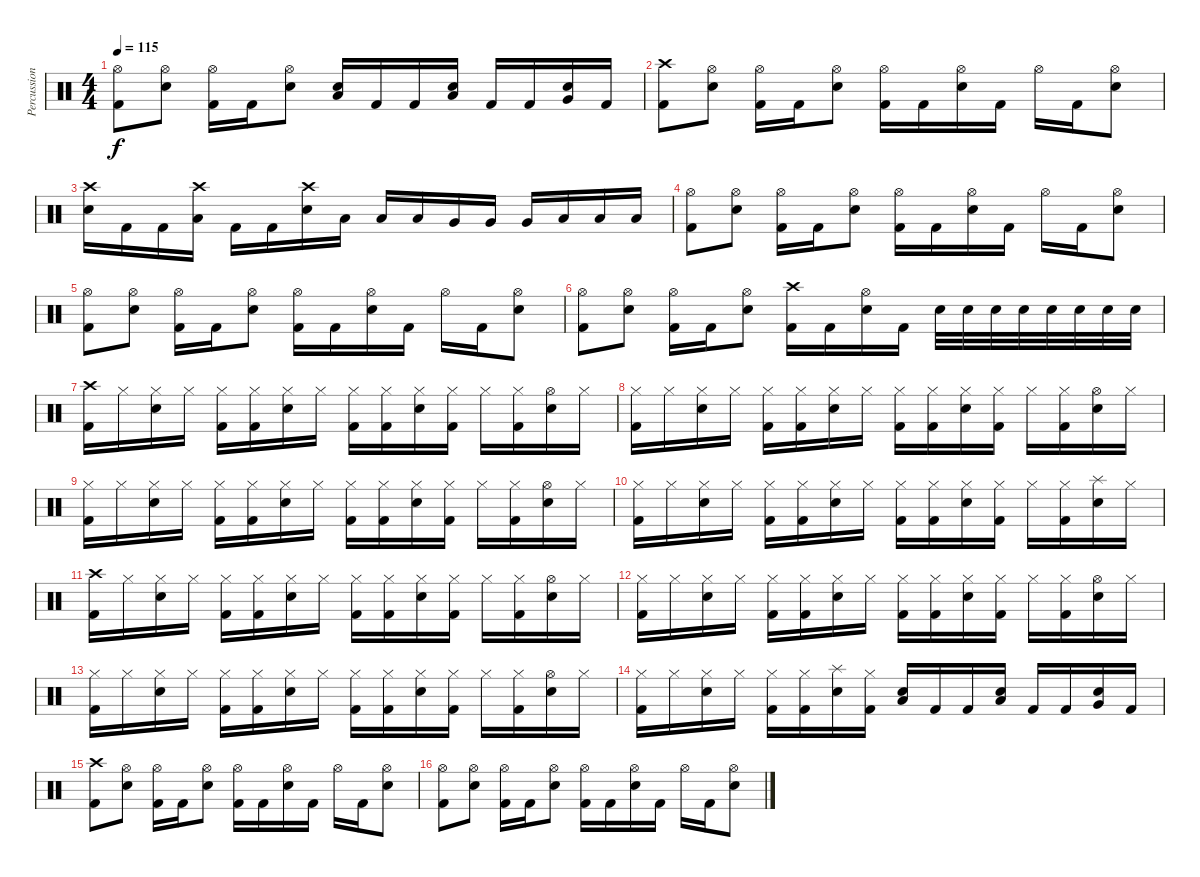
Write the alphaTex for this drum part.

\track ("Percussion" "Percussion") {instrument percussion}
\staff {score}
\articulation defaults
\ts (4 4)
\tempo 115
\clef neutral
\ks c
("Hi-Hat (open)" "Kick (hit) 2").8{dy f} ("Hi-Hat (open)" "Electric Snare (hit)").8 ("Hi-Hat (open)" "Kick (hit) 2").16 "Kick (hit) 2".16 ("Hi-Hat (open)" "Electric Snare (hit)").8 ("Low Tom (hit)" "Electric Snare (hit)").16 "Kick (hit) 2".16 "Kick (hit) 2".16 ("Low Tom (hit)" "Electric Snare (hit)").16 "Kick (hit) 2".16 "Kick (hit) 2".16 ("Very Low Tom (hit)" "Electric Snare (hit)").16 "Kick (hit) 2".16 |
("Crash high (hit)" "Kick (hit) 2").8 ("Hi-Hat (open)" "Electric Snare (hit)").8 ("Hi-Hat (open)" "Kick (hit) 2").16 "Kick (hit) 2".16 ("Hi-Hat (open)" "Electric Snare (hit)").8 ("Hi-Hat (open)" "Kick (hit) 2").16 "Kick (hit) 2".16 ("Hi-Hat (open)" "Electric Snare (hit)").16 "Kick (hit) 2".16 "Hi-Hat (open)".16 "Kick (hit) 2".16 ("Hi-Hat (open)" "Electric Snare (hit)").8 |
("Crash high (hit)" "Electric Snare (hit)").16 "Kick (hit) 2".16 "Kick (hit) 2".16 ("Crash high (hit)" "Low Tom (hit)").16 "Kick (hit) 2".16 "Kick (hit) 2".16 ("Crash high (hit)" "Electric Snare (hit)").16 "Low Tom (hit)".16 "Low Tom (hit)".16 "Low Tom (hit)".16 "Very Low Tom (hit)".16 "Very Low Tom (hit)".16 "Very Low Tom (hit)".16 "Low Floor Tom (hit)".16 "Low Floor Tom (hit)".16 "Low Floor Tom (hit)".16 |
("Hi-Hat (open)" "Kick (hit) 2").8 ("Hi-Hat (open)" "Electric Snare (hit)").8 ("Hi-Hat (open)" "Kick (hit) 2").16 "Kick (hit) 2".16 ("Hi-Hat (open)" "Electric Snare (hit)").8 ("Hi-Hat (open)" "Kick (hit) 2").16 "Kick (hit) 2".16 ("Hi-Hat (open)" "Electric Snare (hit)").16 "Kick (hit) 2".16 "Hi-Hat (open)".16 "Kick (hit) 2".16 ("Hi-Hat (open)" "Electric Snare (hit)").8 |
("Hi-Hat (open)" "Kick (hit) 2").8 ("Hi-Hat (open)" "Electric Snare (hit)").8 ("Hi-Hat (open)" "Kick (hit) 2").16 "Kick (hit) 2".16 ("Hi-Hat (open)" "Electric Snare (hit)").8 ("Hi-Hat (open)" "Kick (hit) 2").16 "Kick (hit) 2".16 ("Hi-Hat (open)" "Electric Snare (hit)").16 "Kick (hit) 2".16 "Hi-Hat (open)".16 "Kick (hit) 2".16 ("Hi-Hat (open)" "Electric Snare (hit)").8 |
("Hi-Hat (open)" "Kick (hit) 2").8 ("Hi-Hat (open)" "Electric Snare (hit)").8 ("Hi-Hat (open)" "Kick (hit) 2").16 "Kick (hit) 2".16 ("Hi-Hat (open)" "Electric Snare (hit)").8 ("Crash high (hit)" "Kick (hit) 2").16 "Kick (hit) 2".16 ("Hi-Hat (open)" "Electric Snare (hit)").16 "Kick (hit) 2".16 "Electric Snare (hit)".32 "Electric Snare (hit)".32 "Electric Snare (hit)".32 "Electric Snare (hit)".32 "Electric Snare (hit)".32 "Electric Snare (hit)".32 "Electric Snare (hit)".32 "Electric Snare (hit)".32 |
("Crash high (hit)" "Kick (hit) 2").16 "Hi-Hat (closed)".16 ("Hi-Hat (closed)" "Electric Snare (hit)").16 "Hi-Hat (closed)".16 ("Hi-Hat (closed)" "Kick (hit) 2").16 ("Hi-Hat (closed)" "Kick (hit) 2").16 ("Hi-Hat (closed)" "Electric Snare (hit)").16 "Hi-Hat (closed)".16 ("Hi-Hat (closed)" "Kick (hit) 2").16 ("Hi-Hat (closed)" "Kick (hit) 2").16 ("Hi-Hat (closed)" "Electric Snare (hit)").16 ("Hi-Hat (closed)" "Kick (hit) 2").16 "Hi-Hat (closed)".16 ("Hi-Hat (closed)" "Kick (hit) 2").16 ("Hi-Hat (open)" "Electric Snare (hit)").16 "Hi-Hat (closed)".16 |
("Hi-Hat (closed)" "Kick (hit) 2").16 "Hi-Hat (closed)".16 ("Hi-Hat (closed)" "Electric Snare (hit)").16 "Hi-Hat (closed)".16 ("Hi-Hat (closed)" "Kick (hit) 2").16 ("Hi-Hat (closed)" "Kick (hit) 2").16 ("Hi-Hat (closed)" "Electric Snare (hit)").16 "Hi-Hat (closed)".16 ("Hi-Hat (closed)" "Kick (hit) 2").16 ("Hi-Hat (closed)" "Kick (hit) 2").16 ("Hi-Hat (closed)" "Electric Snare (hit)").16 ("Hi-Hat (closed)" "Kick (hit) 2").16 "Hi-Hat (closed)".16 ("Hi-Hat (closed)" "Kick (hit) 2").16 ("Hi-Hat (open)" "Electric Snare (hit)").16 "Hi-Hat (closed)".16 |
("Hi-Hat (closed)" "Kick (hit) 2").16 "Hi-Hat (closed)".16 ("Hi-Hat (closed)" "Electric Snare (hit)").16 "Hi-Hat (closed)".16 ("Hi-Hat (closed)" "Kick (hit) 2").16 ("Hi-Hat (closed)" "Kick (hit) 2").16 ("Hi-Hat (closed)" "Electric Snare (hit)").16 "Hi-Hat (closed)".16 ("Hi-Hat (closed)" "Kick (hit) 2").16 ("Hi-Hat (closed)" "Kick (hit) 2").16 ("Hi-Hat (closed)" "Electric Snare (hit)").16 ("Hi-Hat (closed)" "Kick (hit) 2").16 "Hi-Hat (closed)".16 ("Hi-Hat (closed)" "Kick (hit) 2").16 ("Hi-Hat (open)" "Electric Snare (hit)").16 "Hi-Hat (closed)".16 |
("Hi-Hat (closed)" "Kick (hit) 2").16 "Hi-Hat (closed)".16 ("Hi-Hat (closed)" "Electric Snare (hit)").16 "Hi-Hat (closed)".16 ("Hi-Hat (closed)" "Kick (hit) 2").16 ("Hi-Hat (closed)" "Kick (hit) 2").16 ("Hi-Hat (closed)" "Electric Snare (hit)").16 "Hi-Hat (closed)".16 ("Hi-Hat (closed)" "Kick (hit) 2").16 ("Hi-Hat (closed)" "Kick (hit) 2").16 ("Hi-Hat (closed)" "Electric Snare (hit)").16 ("Hi-Hat (closed)" "Kick (hit) 2").16 "Hi-Hat (closed)".16 ("Hi-Hat (closed)" "Kick (hit) 2").16 ("Splash (hit)" "Electric Snare (hit)").16 "Hi-Hat (closed)".16 |
("Crash high (hit)" "Kick (hit) 2").16 "Hi-Hat (closed)".16 ("Hi-Hat (closed)" "Electric Snare (hit)").16 "Hi-Hat (closed)".16 ("Hi-Hat (closed)" "Kick (hit) 2").16 ("Hi-Hat (closed)" "Kick (hit) 2").16 ("Hi-Hat (closed)" "Electric Snare (hit)").16 "Hi-Hat (closed)".16 ("Hi-Hat (closed)" "Kick (hit) 2").16 ("Hi-Hat (closed)" "Kick (hit) 2").16 ("Hi-Hat (closed)" "Electric Snare (hit)").16 ("Hi-Hat (closed)" "Kick (hit) 2").16 "Hi-Hat (closed)".16 ("Hi-Hat (closed)" "Kick (hit) 2").16 ("Hi-Hat (open)" "Electric Snare (hit)").16 "Hi-Hat (closed)".16 |
("Hi-Hat (closed)" "Kick (hit) 2").16 "Hi-Hat (closed)".16 ("Hi-Hat (closed)" "Electric Snare (hit)").16 "Hi-Hat (closed)".16 ("Hi-Hat (closed)" "Kick (hit) 2").16 ("Hi-Hat (closed)" "Kick (hit) 2").16 ("Hi-Hat (closed)" "Electric Snare (hit)").16 "Hi-Hat (closed)".16 ("Hi-Hat (closed)" "Kick (hit) 2").16 ("Hi-Hat (closed)" "Kick (hit) 2").16 ("Hi-Hat (closed)" "Electric Snare (hit)").16 ("Hi-Hat (closed)" "Kick (hit) 2").16 "Hi-Hat (closed)".16 ("Hi-Hat (closed)" "Kick (hit) 2").16 ("Hi-Hat (open)" "Electric Snare (hit)").16 "Hi-Hat (closed)".16 |
("Hi-Hat (closed)" "Kick (hit) 2").16 "Hi-Hat (closed)".16 ("Hi-Hat (closed)" "Electric Snare (hit)").16 "Hi-Hat (closed)".16 ("Hi-Hat (closed)" "Kick (hit) 2").16 ("Hi-Hat (closed)" "Kick (hit) 2").16 ("Hi-Hat (closed)" "Electric Snare (hit)").16 "Hi-Hat (closed)".16 ("Hi-Hat (closed)" "Kick (hit) 2").16 ("Hi-Hat (closed)" "Kick (hit) 2").16 ("Hi-Hat (closed)" "Electric Snare (hit)").16 ("Hi-Hat (closed)" "Kick (hit) 2").16 "Hi-Hat (closed)".16 ("Hi-Hat (closed)" "Kick (hit) 2").16 ("Hi-Hat (open)" "Electric Snare (hit)").16 "Hi-Hat (closed)".16 |
("Hi-Hat (closed)" "Kick (hit) 2").16 "Hi-Hat (closed)".16 ("Hi-Hat (closed)" "Electric Snare (hit)").16 "Hi-Hat (closed)".16 ("Hi-Hat (closed)" "Kick (hit) 2").16 ("Hi-Hat (closed)" "Kick (hit) 2").16 ("Splash (hit)" "Electric Snare (hit)").16 ("Hi-Hat (closed)" "Kick (hit) 2").16 ("Low Tom (hit)" "Electric Snare (hit)").16 "Kick (hit) 2".16 "Kick (hit) 2".16 ("Low Tom (hit)" "Electric Snare (hit)").16 "Kick (hit) 2".16 "Kick (hit) 2".16 ("Very Low Tom (hit)" "Electric Snare (hit)").16 "Kick (hit) 2".16 |
("Crash high (hit)" "Kick (hit) 2").8 ("Hi-Hat (open)" "Electric Snare (hit)").8 ("Hi-Hat (open)" "Kick (hit) 2").16 "Kick (hit) 2".16 ("Hi-Hat (open)" "Electric Snare (hit)").8 ("Hi-Hat (open)" "Kick (hit) 2").16 "Kick (hit) 2".16 ("Hi-Hat (open)" "Electric Snare (hit)").16 "Kick (hit) 2".16 "Hi-Hat (open)".16 "Kick (hit) 2".16 ("Hi-Hat (open)" "Electric Snare (hit)").8 |
("Hi-Hat (open)" "Kick (hit) 2").8 ("Hi-Hat (open)" "Electric Snare (hit)").8 ("Hi-Hat (open)" "Kick (hit) 2").16 "Kick (hit) 2".16 ("Hi-Hat (open)" "Electric Snare (hit)").8 ("Hi-Hat (open)" "Kick (hit) 2").16 "Kick (hit) 2".16 ("Hi-Hat (open)" "Electric Snare (hit)").16 "Kick (hit) 2".16 "Hi-Hat (open)".16 "Kick (hit) 2".16 ("Hi-Hat (open)" "Electric Snare (hit)").8
